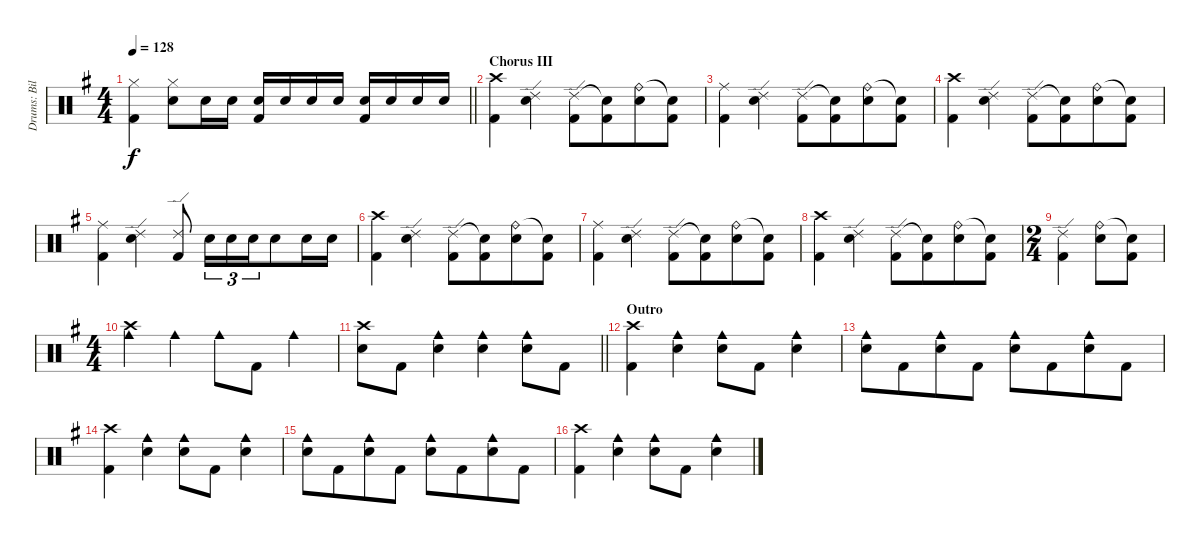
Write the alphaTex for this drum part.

\track ("Drums: Bill" "Drums: Bil") {instrument percussion}
\staff {score}
\articulation defaults
\ts (4 4)
\tempo 128
\clef neutral
\barLineRight lightlight
\ks g
("Hi-Hat (closed)" "Kick (hit) 2").4{dy f} ("Hi-Hat (closed)" "Snare (hit) 2").8 "Snare (hit) 2".16 "Snare (hit) 2".16 ("Snare (hit) 2" "Kick (hit) 2").16 "Snare (hit) 2".16 "Snare (hit) 2".16 "Snare (hit) 2".16 ("Snare (hit) 2" "Kick (hit) 2").16 "Snare (hit) 2".16 "Snare (hit) 2".16 "Snare (hit) 2".16 |
\section ("" "Chorus III")
("Crash high (hit)" "Kick (hit) 2").4 ("Ride (edge) 2" "Snare (hit) 2").4{beam split} ("Ride (edge) 2" "Kick (hit) 2").8 ("Snare (hit)"{t} "Kick (hit) 2").8{beam merge} ("Ride (bell)" "Snare (hit) 2").8 ("Snare (hit)"{t} "Kick (hit) 2").8 |
("Ride (middle)" "Kick (hit) 2").4 ("Ride (edge) 2" "Snare (hit) 2").4{beam split} ("Ride (edge) 2" "Kick (hit) 2").8 ("Snare (hit)"{t} "Kick (hit) 2").8{beam merge} ("Ride (bell)" "Snare (hit) 2").8 ("Snare (hit)"{t} "Kick (hit) 2").8 |
("Crash high (hit)" "Kick (hit) 2").4 ("Ride (edge) 2" "Snare (hit) 2").4{beam split} ("Ride (edge) 2" "Kick (hit) 2").8 ("Snare (hit)"{t} "Kick (hit) 2").8{beam merge} ("Ride (bell)" "Snare (hit) 2").8 ("Snare (hit)"{t} "Kick (hit) 2").8 |
("Ride (middle)" "Kick (hit) 2").4 ("Ride (edge) 2" "Snare (hit) 2").4{beam split} ("Ride (edge) 2" "Kick (hit) 2").8 "Snare (hit) 2".16{tu (3 2)} "Snare (hit) 2".16{tu (3 2)} "Snare (hit) 2".16{tu (3 2) beam merge} "Snare (hit) 2".8 "Snare (hit) 2".16 "Snare (hit) 2".16 |
("Crash high (hit)" "Kick (hit) 2").4 ("Ride (edge) 2" "Snare (hit) 2").4{beam split} ("Ride (edge) 2" "Kick (hit) 2").8 ("Snare (hit)"{t} "Kick (hit) 2").8{beam merge} ("Ride (bell)" "Snare (hit) 2").8 ("Snare (hit)"{t} "Kick (hit) 2").8 |
("Ride (middle)" "Kick (hit) 2").4 ("Ride (edge) 2" "Snare (hit) 2").4{beam split} ("Ride (edge) 2" "Kick (hit) 2").8 ("Snare (hit)"{t} "Kick (hit) 2").8{beam merge} ("Ride (bell)" "Snare (hit) 2").8 ("Snare (hit)"{t} "Kick (hit) 2").8 |
("Crash high (hit)" "Kick (hit) 2").4 ("Ride (edge) 2" "Snare (hit) 2").4{beam split} ("Ride (edge) 2" "Kick (hit) 2").8 ("Snare (hit)"{t} "Kick (hit) 2").8{beam merge} ("Ride (bell)" "Snare (hit) 2").8 ("Snare (hit)"{t} "Kick (hit) 2").8 |
\ts (2 4)
("Ride (edge) 2" "Kick (hit) 2").4{beam merge} ("Ride (bell)" "Snare (hit) 2").8 ("Snare (hit)"{t} "Kick (hit) 2").8 |
\ts (4 4)
("Crash high (hit)" "Cowbell medium (hit)").4 "Cowbell medium (hit)".4 "Cowbell medium (hit)".8 "Kick (hit) 2".8 "Cowbell medium (hit)".4 |
\barLineRight lightlight
("Crash high (hit)" "Snare (hit) 2").8 "Kick (hit) 2".8 ("Snare (hit) 2" "Cowbell medium (hit)").4 ("Snare (hit) 2" "Cowbell medium (hit)").4 ("Snare (hit) 2" "Cowbell medium (hit)").8 "Kick (hit) 2".8 |
\section ("" "Outro")
("Crash high (hit)" "Kick (hit) 2").4 ("Snare (hit) 2" "Cowbell medium (hit)").4 ("Snare (hit) 2" "Cowbell medium (hit)").8 "Kick (hit) 2".8 ("Snare (hit) 2" "Cowbell medium (hit)").4 |
("Snare (hit) 2" "Cowbell medium (hit)").8 "Kick (hit) 2".8{beam merge} ("Snare (hit) 2" "Cowbell medium (hit)").8 "Kick (hit) 2".8{beam split} ("Snare (hit) 2" "Cowbell medium (hit)").8 "Kick (hit) 2".8{beam merge} ("Snare (hit) 2" "Cowbell medium (hit)").8 "Kick (hit) 2".8 |
("Crash high (hit)" "Kick (hit) 2").4 ("Snare (hit) 2" "Cowbell medium (hit)").4 ("Snare (hit) 2" "Cowbell medium (hit)").8 "Kick (hit) 2".8 ("Snare (hit) 2" "Cowbell medium (hit)").4 |
("Snare (hit) 2" "Cowbell medium (hit)").8 "Kick (hit) 2".8{beam merge} ("Snare (hit) 2" "Cowbell medium (hit)").8 "Kick (hit) 2".8{beam split} ("Snare (hit) 2" "Cowbell medium (hit)").8 "Kick (hit) 2".8{beam merge} ("Snare (hit) 2" "Cowbell medium (hit)").8 "Kick (hit) 2".8 |
("Crash high (hit)" "Kick (hit) 2").4 ("Snare (hit) 2" "Cowbell medium (hit)").4 ("Snare (hit) 2" "Cowbell medium (hit)").8 "Kick (hit) 2".8 ("Snare (hit) 2" "Cowbell medium (hit)").4
